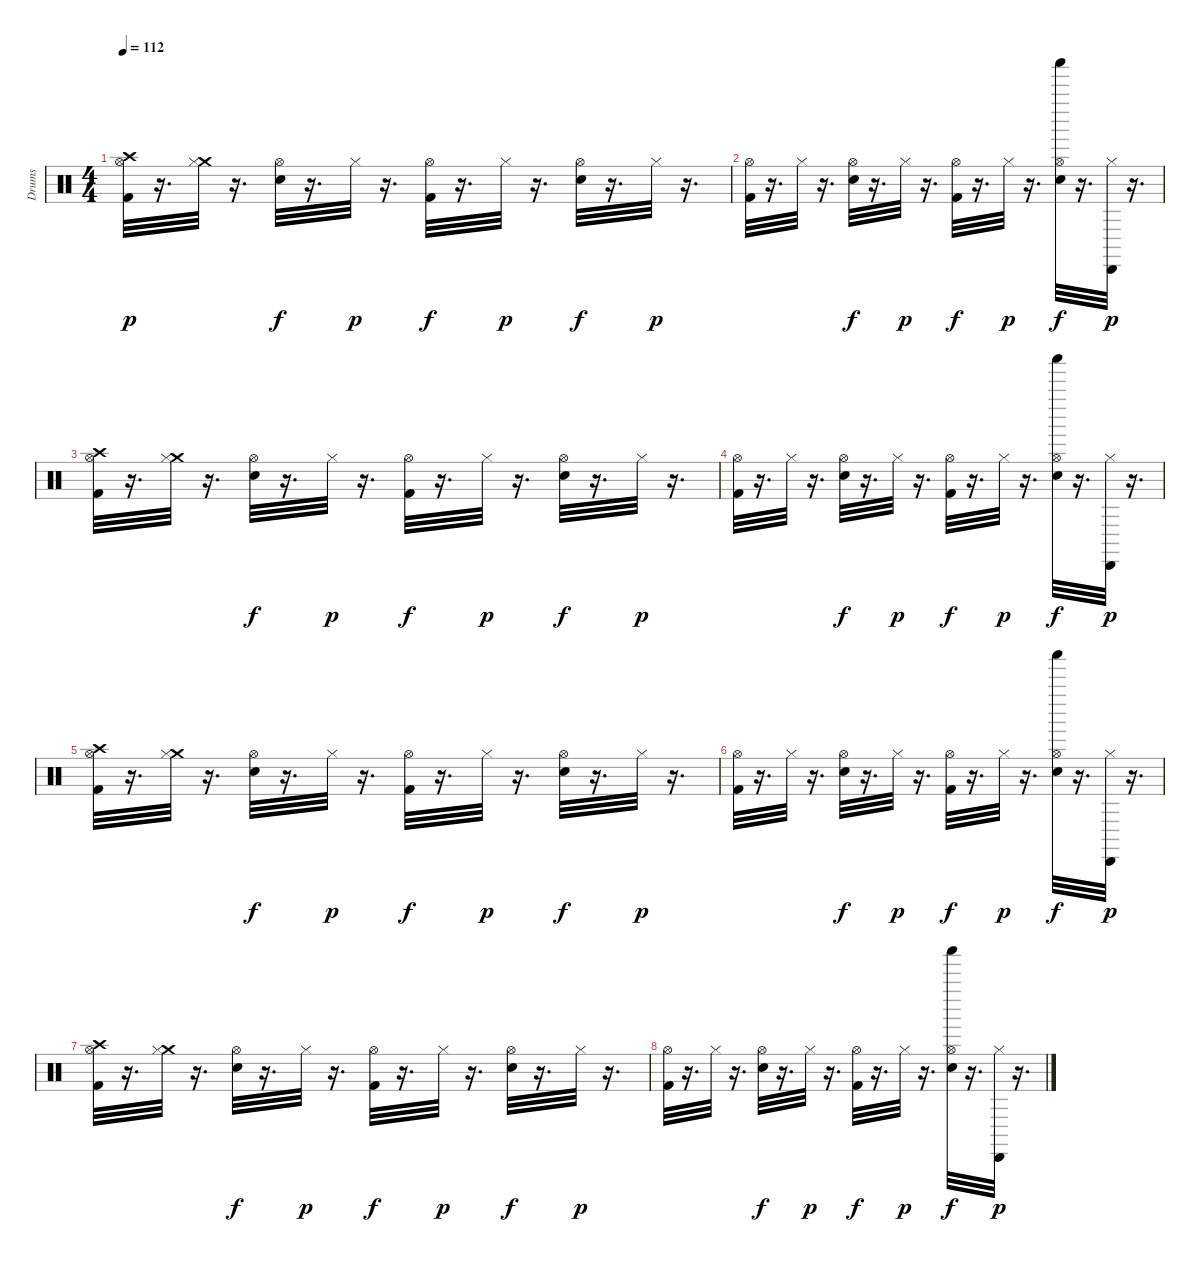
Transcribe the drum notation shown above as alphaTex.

\track ("Drums" "Drums") {instrument percussion}
\staff {score}
\articulation defaults
\ts (4 4)
\tempo 112
\clef neutral
\ks c
("Crash high (hit)" "Hi-Hat (open)" "Kick (hit) 2").32{dy p} r.16{d} ("Crash medium (hit)" "Hi-Hat (closed)").32 r.16{d} ("Hi-Hat (open)" "Snare (hit) 2").32{dy f} r.16{d} "Hi-Hat (closed)".32{dy p} r.16{d} ("Hi-Hat (open)" "Kick (hit) 2").32{dy f} r.16{d} "Hi-Hat (closed)".32{dy p} r.16{d} ("Hi-Hat (open)" "Snare (hit) 2").32{dy f} r.16{d} "Hi-Hat (closed)".32{dy p} r.16{d} |
("Hi-Hat (open)" "Kick (hit) 2").32 r.16{d} "Hi-Hat (closed)".32 r.16{d} ("Hi-Hat (open)" "Snare (hit) 2").32{dy f} r.16{d} "Hi-Hat (closed)".32{dy p} r.16{d} ("Hi-Hat (open)" "Kick (hit) 2").32{dy f} r.16{d} "Hi-Hat (closed)".32{dy p} r.16{d} ("Shaker (hit)" "Hi-Hat (open)" "Snare (hit) 2").32{dy f} r.16{d} ("Hi-Hat (closed)" "Cabasa (hit)").32{dy p} r.16{d} |
("Crash high (hit)" "Hi-Hat (open)" "Kick (hit) 2").32 r.16{d} ("Crash medium (hit)" "Hi-Hat (closed)").32 r.16{d} ("Hi-Hat (open)" "Snare (hit) 2").32{dy f} r.16{d} "Hi-Hat (closed)".32{dy p} r.16{d} ("Hi-Hat (open)" "Kick (hit) 2").32{dy f} r.16{d} "Hi-Hat (closed)".32{dy p} r.16{d} ("Hi-Hat (open)" "Snare (hit) 2").32{dy f} r.16{d} "Hi-Hat (closed)".32{dy p} r.16{d} |
("Hi-Hat (open)" "Kick (hit) 2").32 r.16{d} "Hi-Hat (closed)".32 r.16{d} ("Hi-Hat (open)" "Snare (hit) 2").32{dy f} r.16{d} "Hi-Hat (closed)".32{dy p} r.16{d} ("Hi-Hat (open)" "Kick (hit) 2").32{dy f} r.16{d} "Hi-Hat (closed)".32{dy p} r.16{d} ("Shaker (hit)" "Hi-Hat (open)" "Snare (hit) 2").32{dy f} r.16{d} ("Hi-Hat (closed)" "Cabasa (hit)").32{dy p} r.16{d} |
("Crash high (hit)" "Hi-Hat (open)" "Kick (hit) 2").32 r.16{d} ("Crash medium (hit)" "Hi-Hat (closed)").32 r.16{d} ("Hi-Hat (open)" "Snare (hit) 2").32{dy f} r.16{d} "Hi-Hat (closed)".32{dy p} r.16{d} ("Hi-Hat (open)" "Kick (hit) 2").32{dy f} r.16{d} "Hi-Hat (closed)".32{dy p} r.16{d} ("Hi-Hat (open)" "Snare (hit) 2").32{dy f} r.16{d} "Hi-Hat (closed)".32{dy p} r.16{d} |
("Hi-Hat (open)" "Kick (hit) 2").32 r.16{d} "Hi-Hat (closed)".32 r.16{d} ("Hi-Hat (open)" "Snare (hit) 2").32{dy f} r.16{d} "Hi-Hat (closed)".32{dy p} r.16{d} ("Hi-Hat (open)" "Kick (hit) 2").32{dy f} r.16{d} "Hi-Hat (closed)".32{dy p} r.16{d} ("Shaker (hit)" "Hi-Hat (open)" "Snare (hit) 2").32{dy f} r.16{d} ("Hi-Hat (closed)" "Cabasa (hit)").32{dy p} r.16{d} |
("Crash high (hit)" "Hi-Hat (open)" "Kick (hit) 2").32 r.16{d} ("Crash medium (hit)" "Hi-Hat (closed)").32 r.16{d} ("Hi-Hat (open)" "Snare (hit) 2").32{dy f} r.16{d} "Hi-Hat (closed)".32{dy p} r.16{d} ("Hi-Hat (open)" "Kick (hit) 2").32{dy f} r.16{d} "Hi-Hat (closed)".32{dy p} r.16{d} ("Hi-Hat (open)" "Snare (hit) 2").32{dy f} r.16{d} "Hi-Hat (closed)".32{dy p} r.16{d} |
("Hi-Hat (open)" "Kick (hit) 2").32 r.16{d} "Hi-Hat (closed)".32 r.16{d} ("Hi-Hat (open)" "Snare (hit) 2").32{dy f} r.16{d} "Hi-Hat (closed)".32{dy p} r.16{d} ("Hi-Hat (open)" "Kick (hit) 2").32{dy f} r.16{d} "Hi-Hat (closed)".32{dy p} r.16{d} ("Shaker (hit)" "Hi-Hat (open)" "Snare (hit) 2").32{dy f} r.16{d} ("Hi-Hat (closed)" "Cabasa (hit)").32{dy p} r.16{d}
